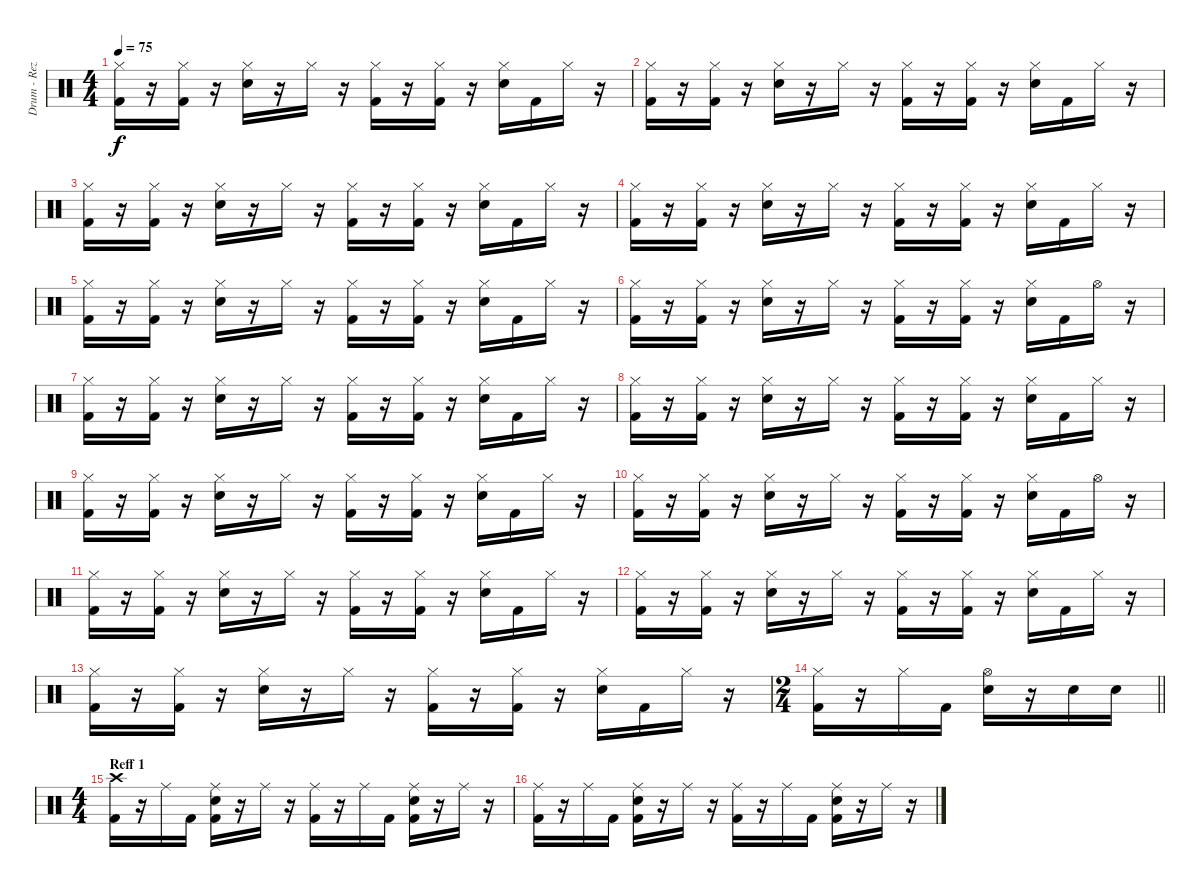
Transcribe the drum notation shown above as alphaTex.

\track ("Drum - Reza" "Drum - Rez") {instrument percussion}
\staff {score}
\articulation defaults
\ts (4 4)
\tempo 75
\clef neutral
\ks c
("Hi-Hat (closed)" "Kick (hit) 2").16{dy f} r.16 ("Hi-Hat (closed)" "Kick (hit) 2").16 r.16 ("Hi-Hat (closed)" "Electric Snare (hit)").16 r.16 "Hi-Hat (closed)".16 r.16 ("Hi-Hat (closed)" "Kick (hit) 2").16 r.16 ("Hi-Hat (closed)" "Kick (hit) 2").16 r.16 ("Hi-Hat (closed)" "Electric Snare (hit)").16 "Kick (hit) 2".16 "Hi-Hat (closed)".16 r.16 |
("Hi-Hat (closed)" "Kick (hit) 2").16 r.16 ("Hi-Hat (closed)" "Kick (hit) 2").16 r.16 ("Hi-Hat (closed)" "Electric Snare (hit)").16 r.16 "Hi-Hat (closed)".16 r.16 ("Hi-Hat (closed)" "Kick (hit) 2").16 r.16 ("Hi-Hat (closed)" "Kick (hit) 2").16 r.16 ("Hi-Hat (closed)" "Electric Snare (hit)").16 "Kick (hit) 2".16 "Hi-Hat (closed)".16 r.16 |
("Hi-Hat (closed)" "Kick (hit) 2").16 r.16 ("Hi-Hat (closed)" "Kick (hit) 2").16 r.16 ("Hi-Hat (closed)" "Electric Snare (hit)").16 r.16 "Hi-Hat (closed)".16 r.16 ("Hi-Hat (closed)" "Kick (hit) 2").16 r.16 ("Hi-Hat (closed)" "Kick (hit) 2").16 r.16 ("Hi-Hat (closed)" "Electric Snare (hit)").16 "Kick (hit) 2".16 "Hi-Hat (closed)".16 r.16 |
("Hi-Hat (closed)" "Kick (hit) 2").16 r.16 ("Hi-Hat (closed)" "Kick (hit) 2").16 r.16 ("Hi-Hat (closed)" "Electric Snare (hit)").16 r.16 "Hi-Hat (closed)".16 r.16 ("Hi-Hat (closed)" "Kick (hit) 2").16 r.16 ("Hi-Hat (closed)" "Kick (hit) 2").16 r.16 ("Hi-Hat (closed)" "Electric Snare (hit)").16 "Kick (hit) 2".16 "Hi-Hat (closed)".16 r.16 |
("Hi-Hat (closed)" "Kick (hit) 2").16 r.16 ("Hi-Hat (closed)" "Kick (hit) 2").16 r.16 ("Hi-Hat (closed)" "Electric Snare (hit)").16 r.16 "Hi-Hat (closed)".16 r.16 ("Hi-Hat (closed)" "Kick (hit) 2").16 r.16 ("Hi-Hat (closed)" "Kick (hit) 2").16 r.16 ("Hi-Hat (closed)" "Electric Snare (hit)").16 "Kick (hit) 2".16 "Hi-Hat (closed)".16 r.16 |
("Hi-Hat (closed)" "Kick (hit) 2").16 r.16 ("Hi-Hat (closed)" "Kick (hit) 2").16 r.16 ("Hi-Hat (closed)" "Electric Snare (hit)").16 r.16 "Hi-Hat (closed)".16 r.16 ("Hi-Hat (closed)" "Kick (hit) 2").16 r.16 ("Hi-Hat (closed)" "Kick (hit) 2").16 r.16 ("Hi-Hat (closed)" "Electric Snare (hit)").16 "Kick (hit) 2".16 "Hi-Hat (open)".16 r.16 |
("Hi-Hat (closed)" "Kick (hit) 2").16 r.16 ("Hi-Hat (closed)" "Kick (hit) 2").16 r.16 ("Hi-Hat (closed)" "Electric Snare (hit)").16 r.16 "Hi-Hat (closed)".16 r.16 ("Hi-Hat (closed)" "Kick (hit) 2").16 r.16 ("Hi-Hat (closed)" "Kick (hit) 2").16 r.16 ("Hi-Hat (closed)" "Electric Snare (hit)").16 "Kick (hit) 2".16 "Hi-Hat (closed)".16 r.16 |
("Hi-Hat (closed)" "Kick (hit) 2").16 r.16 ("Hi-Hat (closed)" "Kick (hit) 2").16 r.16 ("Hi-Hat (closed)" "Electric Snare (hit)").16 r.16 "Hi-Hat (closed)".16 r.16 ("Hi-Hat (closed)" "Kick (hit) 2").16 r.16 ("Hi-Hat (closed)" "Kick (hit) 2").16 r.16 ("Hi-Hat (closed)" "Electric Snare (hit)").16 "Kick (hit) 2".16 "Hi-Hat (closed)".16 r.16 |
("Hi-Hat (closed)" "Kick (hit) 2").16 r.16 ("Hi-Hat (closed)" "Kick (hit) 2").16 r.16 ("Hi-Hat (closed)" "Electric Snare (hit)").16 r.16 "Hi-Hat (closed)".16 r.16 ("Hi-Hat (closed)" "Kick (hit) 2").16 r.16 ("Hi-Hat (closed)" "Kick (hit) 2").16 r.16 ("Hi-Hat (closed)" "Electric Snare (hit)").16 "Kick (hit) 2".16 "Hi-Hat (closed)".16 r.16 |
("Hi-Hat (closed)" "Kick (hit) 2").16 r.16 ("Hi-Hat (closed)" "Kick (hit) 2").16 r.16 ("Hi-Hat (closed)" "Electric Snare (hit)").16 r.16 "Hi-Hat (closed)".16 r.16 ("Hi-Hat (closed)" "Kick (hit) 2").16 r.16 ("Hi-Hat (closed)" "Kick (hit) 2").16 r.16 ("Hi-Hat (closed)" "Electric Snare (hit)").16 "Kick (hit) 2".16 "Hi-Hat (open)".16 r.16 |
("Hi-Hat (closed)" "Kick (hit) 2").16 r.16 ("Hi-Hat (closed)" "Kick (hit) 2").16 r.16 ("Hi-Hat (closed)" "Electric Snare (hit)").16 r.16 "Hi-Hat (closed)".16 r.16 ("Hi-Hat (closed)" "Kick (hit) 2").16 r.16 ("Hi-Hat (closed)" "Kick (hit) 2").16 r.16 ("Hi-Hat (closed)" "Electric Snare (hit)").16 "Kick (hit) 2".16 "Hi-Hat (closed)".16 r.16 |
("Hi-Hat (closed)" "Kick (hit) 2").16 r.16 ("Hi-Hat (closed)" "Kick (hit) 2").16 r.16 ("Hi-Hat (closed)" "Electric Snare (hit)").16 r.16 "Hi-Hat (closed)".16 r.16 ("Hi-Hat (closed)" "Kick (hit) 2").16 r.16 ("Hi-Hat (closed)" "Kick (hit) 2").16 r.16 ("Hi-Hat (closed)" "Electric Snare (hit)").16 "Kick (hit) 2".16 "Hi-Hat (closed)".16 r.16 |
("Hi-Hat (closed)" "Kick (hit) 2").16 r.16 ("Hi-Hat (closed)" "Kick (hit) 2").16 r.16 ("Hi-Hat (closed)" "Electric Snare (hit)").16 r.16 "Hi-Hat (closed)".16 r.16 ("Hi-Hat (closed)" "Kick (hit) 2").16 r.16 ("Hi-Hat (closed)" "Kick (hit) 2").16 r.16 ("Hi-Hat (closed)" "Electric Snare (hit)").16 "Kick (hit) 2".16 "Hi-Hat (closed)".16 r.16 |
\ts (2 4)
\barLineRight lightlight
("Hi-Hat (closed)" "Kick (hit) 2").16 r.16 "Hi-Hat (closed)".16 "Kick (hit) 2".16 ("Hi-Hat (open)" "Electric Snare (hit)").16 r.16 "Electric Snare (hit)".16 "Electric Snare (hit)".16 |
\ts (4 4)
\section ("" "Reff 1")
("Crash high (hit)" "Kick (hit) 2").16 r.16 "Ride (middle)".16 "Kick (hit) 2".16 ("Ride (middle)" "Electric Snare (hit)" "Kick (hit) 2").16 r.16 "Ride (middle)".16 r.16 ("Ride (middle)" "Kick (hit) 2").16 r.16 "Ride (middle)".16 "Kick (hit) 2".16 ("Ride (middle)" "Electric Snare (hit)" "Kick (hit) 2").16 r.16 "Ride (middle)".16 r.16 |
("Ride (middle)" "Kick (hit) 2").16 r.16 "Ride (middle)".16 "Kick (hit) 2".16 ("Ride (middle)" "Electric Snare (hit)" "Kick (hit) 2").16 r.16 "Ride (middle)".16 r.16 ("Ride (middle)" "Kick (hit) 2").16 r.16 "Ride (middle)".16 "Kick (hit) 2".16 ("Ride (middle)" "Electric Snare (hit)" "Kick (hit) 2").16 r.16 "Ride (middle)".16 r.16
